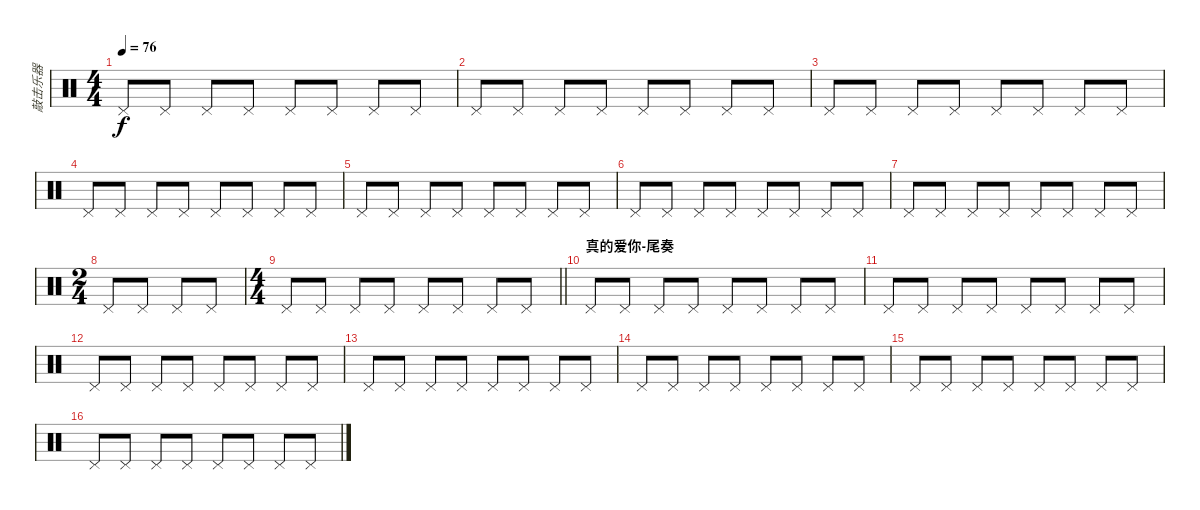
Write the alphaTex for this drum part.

\track ("敲击乐器" "敲击乐器") {instrument percussion}
\staff {score}
\articulation defaults
\ts (4 4)
\tempo 76
\clef neutral
\ks c "Pedal Hi-Hat (hit)".8{dy f} "Pedal Hi-Hat (hit)".8 "Pedal Hi-Hat (hit)".8 "Pedal Hi-Hat (hit)".8 "Pedal Hi-Hat (hit)".8 "Pedal Hi-Hat (hit)".8 "Pedal Hi-Hat (hit)".8 "Pedal Hi-Hat (hit)".8
|
"Pedal Hi-Hat (hit)".8 "Pedal Hi-Hat (hit)".8 "Pedal Hi-Hat (hit)".8 "Pedal Hi-Hat (hit)".8 "Pedal Hi-Hat (hit)".8 "Pedal Hi-Hat (hit)".8 "Pedal Hi-Hat (hit)".8 "Pedal Hi-Hat (hit)".8 |
"Pedal Hi-Hat (hit)".8 "Pedal Hi-Hat (hit)".8 "Pedal Hi-Hat (hit)".8 "Pedal Hi-Hat (hit)".8 "Pedal Hi-Hat (hit)".8 "Pedal Hi-Hat (hit)".8 "Pedal Hi-Hat (hit)".8 "Pedal Hi-Hat (hit)".8 |
"Pedal Hi-Hat (hit)".8 "Pedal Hi-Hat (hit)".8 "Pedal Hi-Hat (hit)".8 "Pedal Hi-Hat (hit)".8 "Pedal Hi-Hat (hit)".8 "Pedal Hi-Hat (hit)".8 "Pedal Hi-Hat (hit)".8 "Pedal Hi-Hat (hit)".8 |
"Pedal Hi-Hat (hit)".8 "Pedal Hi-Hat (hit)".8 "Pedal Hi-Hat (hit)".8 "Pedal Hi-Hat (hit)".8 "Pedal Hi-Hat (hit)".8 "Pedal Hi-Hat (hit)".8 "Pedal Hi-Hat (hit)".8 "Pedal Hi-Hat (hit)".8 |
"Pedal Hi-Hat (hit)".8 "Pedal Hi-Hat (hit)".8 "Pedal Hi-Hat (hit)".8 "Pedal Hi-Hat (hit)".8 "Pedal Hi-Hat (hit)".8 "Pedal Hi-Hat (hit)".8 "Pedal Hi-Hat (hit)".8 "Pedal Hi-Hat (hit)".8 |
"Pedal Hi-Hat (hit)".8 "Pedal Hi-Hat (hit)".8 "Pedal Hi-Hat (hit)".8 "Pedal Hi-Hat (hit)".8 "Pedal Hi-Hat (hit)".8 "Pedal Hi-Hat (hit)".8 "Pedal Hi-Hat (hit)".8 "Pedal Hi-Hat (hit)".8 |
\ts (2 4)
"Pedal Hi-Hat (hit)".8 "Pedal Hi-Hat (hit)".8 "Pedal Hi-Hat (hit)".8 "Pedal Hi-Hat (hit)".8 |
\ts (4 4)
\barLineRight lightlight "Pedal Hi-Hat (hit)".8 "Pedal Hi-Hat (hit)".8 "Pedal Hi-Hat (hit)".8 "Pedal Hi-Hat (hit)".8 "Pedal Hi-Hat (hit)".8 "Pedal Hi-Hat (hit)".8 "Pedal Hi-Hat (hit)".8 "Pedal Hi-Hat (hit)".8
|
\section ("" "真的爱你-尾奏")
"Pedal Hi-Hat (hit)".8 "Pedal Hi-Hat (hit)".8 "Pedal Hi-Hat (hit)".8 "Pedal Hi-Hat (hit)".8 "Pedal Hi-Hat (hit)".8 "Pedal Hi-Hat (hit)".8 "Pedal Hi-Hat (hit)".8 "Pedal Hi-Hat (hit)".8 |
"Pedal Hi-Hat (hit)".8 "Pedal Hi-Hat (hit)".8 "Pedal Hi-Hat (hit)".8 "Pedal Hi-Hat (hit)".8 "Pedal Hi-Hat (hit)".8 "Pedal Hi-Hat (hit)".8 "Pedal Hi-Hat (hit)".8 "Pedal Hi-Hat (hit)".8 |
"Pedal Hi-Hat (hit)".8 "Pedal Hi-Hat (hit)".8 "Pedal Hi-Hat (hit)".8 "Pedal Hi-Hat (hit)".8 "Pedal Hi-Hat (hit)".8 "Pedal Hi-Hat (hit)".8 "Pedal Hi-Hat (hit)".8 "Pedal Hi-Hat (hit)".8 |
"Pedal Hi-Hat (hit)".8 "Pedal Hi-Hat (hit)".8 "Pedal Hi-Hat (hit)".8 "Pedal Hi-Hat (hit)".8 "Pedal Hi-Hat (hit)".8 "Pedal Hi-Hat (hit)".8 "Pedal Hi-Hat (hit)".8 "Pedal Hi-Hat (hit)".8 |
"Pedal Hi-Hat (hit)".8 "Pedal Hi-Hat (hit)".8 "Pedal Hi-Hat (hit)".8 "Pedal Hi-Hat (hit)".8 "Pedal Hi-Hat (hit)".8 "Pedal Hi-Hat (hit)".8 "Pedal Hi-Hat (hit)".8 "Pedal Hi-Hat (hit)".8 |
"Pedal Hi-Hat (hit)".8 "Pedal Hi-Hat (hit)".8 "Pedal Hi-Hat (hit)".8 "Pedal Hi-Hat (hit)".8 "Pedal Hi-Hat (hit)".8 "Pedal Hi-Hat (hit)".8 "Pedal Hi-Hat (hit)".8 "Pedal Hi-Hat (hit)".8 |
"Pedal Hi-Hat (hit)".8 "Pedal Hi-Hat (hit)".8 "Pedal Hi-Hat (hit)".8 "Pedal Hi-Hat (hit)".8 "Pedal Hi-Hat (hit)".8 "Pedal Hi-Hat (hit)".8 "Pedal Hi-Hat (hit)".8 "Pedal Hi-Hat (hit)".8
